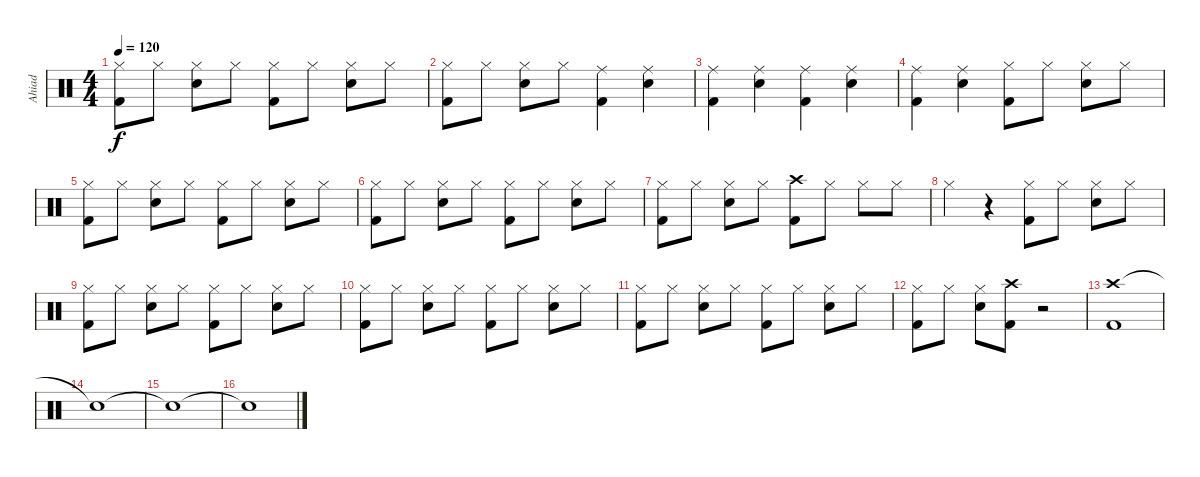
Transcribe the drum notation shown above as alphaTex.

\track ("Ahiad" "Ahiad") {instrument percussion}
\staff {score}
\articulation defaults
\ts (4 4)
\tempo 120
\clef neutral
\ks c
("Hi-Hat (closed)" "Kick (hit) 2").8{dy f} "Hi-Hat (closed)".8 ("Hi-Hat (closed)" "Snare (hit) 2").8 "Hi-Hat (closed)".8 ("Hi-Hat (closed)" "Kick (hit) 2").8 "Hi-Hat (closed)".8 ("Hi-Hat (closed)" "Snare (hit) 2").8 "Hi-Hat (closed)".8 |
("Hi-Hat (closed)" "Kick (hit) 2").8 "Hi-Hat (closed)".8 ("Hi-Hat (closed)" "Snare (hit) 2").8 "Hi-Hat (closed)".8 ("Ride (middle)" "Kick (hit) 2").4 ("Ride (middle)" "Snare (hit) 2").4 |
("Ride (middle)" "Kick (hit) 2").4 ("Ride (middle)" "Snare (hit) 2").4 ("Ride (middle)" "Kick (hit) 2").4 ("Ride (middle)" "Snare (hit) 2").4 |
("Ride (middle)" "Kick (hit) 2").4 ("Ride (middle)" "Snare (hit) 2").4 ("Hi-Hat (closed)" "Kick (hit) 2").8 "Hi-Hat (closed)".8 ("Hi-Hat (closed)" "Snare (hit) 2").8 "Hi-Hat (closed)".8 |
("Hi-Hat (closed)" "Kick (hit) 2").8 "Hi-Hat (closed)".8 ("Hi-Hat (closed)" "Snare (hit) 2").8 "Hi-Hat (closed)".8 ("Hi-Hat (closed)" "Kick (hit) 2").8 "Hi-Hat (closed)".8 ("Hi-Hat (closed)" "Snare (hit) 2").8 "Hi-Hat (closed)".8 |
("Hi-Hat (closed)" "Kick (hit) 2").8 "Hi-Hat (closed)".8 ("Hi-Hat (closed)" "Snare (hit) 2").8 "Hi-Hat (closed)".8 ("Hi-Hat (closed)" "Kick (hit) 2").8 "Hi-Hat (closed)".8 ("Hi-Hat (closed)" "Snare (hit) 2").8 "Hi-Hat (closed)".8 |
("Hi-Hat (closed)" "Kick (hit) 2").8 "Hi-Hat (closed)".8 ("Hi-Hat (closed)" "Snare (hit) 2").8 "Hi-Hat (closed)".8 ("Crash high (hit)" "Kick (hit) 2").8 "Hi-Hat (closed)".8 "Hi-Hat (closed)".8 "Hi-Hat (closed)".8 |
"Hi-Hat (closed)".4 r.4 ("Hi-Hat (closed)" "Kick (hit) 2").8 "Hi-Hat (closed)".8 ("Hi-Hat (closed)" "Snare (hit) 2").8 "Hi-Hat (closed)".8 |
("Hi-Hat (closed)" "Kick (hit) 2").8 "Hi-Hat (closed)".8 ("Hi-Hat (closed)" "Snare (hit) 2").8 "Hi-Hat (closed)".8 ("Hi-Hat (closed)" "Kick (hit) 2").8 "Hi-Hat (closed)".8 ("Hi-Hat (closed)" "Snare (hit) 2").8 "Hi-Hat (closed)".8 |
("Hi-Hat (closed)" "Kick (hit) 2").8 "Hi-Hat (closed)".8 ("Hi-Hat (closed)" "Snare (hit) 2").8 "Hi-Hat (closed)".8 ("Hi-Hat (closed)" "Kick (hit) 2").8 "Hi-Hat (closed)".8 ("Hi-Hat (closed)" "Snare (hit) 2").8 "Hi-Hat (closed)".8 |
("Hi-Hat (closed)" "Kick (hit) 2").8 "Hi-Hat (closed)".8 ("Hi-Hat (closed)" "Snare (hit) 2").8 "Hi-Hat (closed)".8 ("Hi-Hat (closed)" "Kick (hit) 2").8 "Hi-Hat (closed)".8 ("Hi-Hat (closed)" "Snare (hit) 2").8 "Hi-Hat (closed)".8 |
("Hi-Hat (closed)" "Kick (hit) 2").8 "Hi-Hat (closed)".8 ("Hi-Hat (closed)" "Snare (hit) 2").8 ("Crash high (hit)" "Kick (hit) 2").8 r.2 |
("Crash high (hit)" "Kick (hit) 2").1 |
"Snare (hit)"{t}.1 |
"Snare (hit)"{t}.1 |
"Snare (hit)"{t}.1
